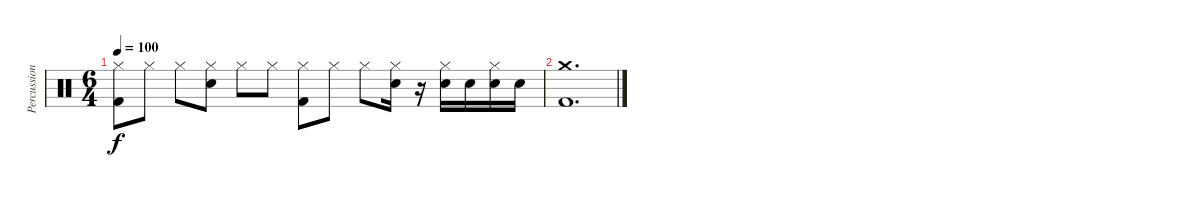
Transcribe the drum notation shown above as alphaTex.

\track ("Percussions" "Percussion") {instrument percussion}
\staff {score}
\articulation defaults
\ts (6 4)
\tempo 100
\clef neutral
\ks c
("Hi-Hat (closed)" "Kick (hit) 2").8{dy f} "Hi-Hat (closed)".8 "Hi-Hat (closed)".8 ("Hi-Hat (closed)" "Electric Snare (hit)").8 "Hi-Hat (closed)".8 "Hi-Hat (closed)".8 ("Hi-Hat (closed)" "Kick (hit) 2").8 "Hi-Hat (closed)".8 "Hi-Hat (closed)".8 ("Hi-Hat (closed)" "Electric Snare (hit)").16 r.16 ("Hi-Hat (closed)" "Electric Snare (hit)").16 "Electric Snare (hit)".16 ("Hi-Hat (closed)" "Electric Snare (hit)").16 "Electric Snare (hit)".16 |
("Crash medium (hit)" "Kick (hit) 2").1{d}
